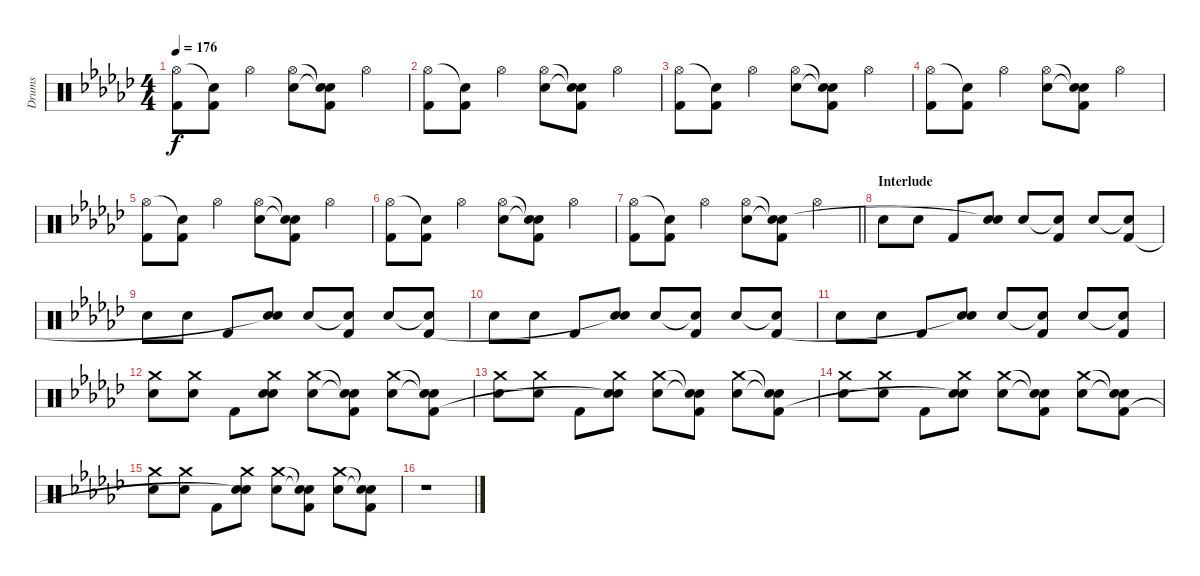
\track ("Drums" "Drums") {instrument percussion}
\staff {score}
\articulation defaults
\ts (4 4)
\tempo 176
\clef neutral
\ks ebminor
("Hi-Hat (open)" "Kick (hit) 2").8{dy f} ("Snare (hit)"{t} "Kick (hit) 2").8 "Hi-Hat (open)".4 ("Hi-Hat (open)" "Electric Snare (hit)").8 ("Snare (hit)"{t} "Snare (hit)"{t} "Kick (hit) 2").8 "Hi-Hat (open)".4 |
("Hi-Hat (open)" "Kick (hit) 2").8 ("Snare (hit)"{t} "Kick (hit) 2").8 "Hi-Hat (open)".4 ("Hi-Hat (open)" "Electric Snare (hit)").8 ("Snare (hit)"{t} "Snare (hit)"{t} "Kick (hit) 2").8 "Hi-Hat (open)".4 |
("Hi-Hat (open)" "Kick (hit) 2").8 ("Snare (hit)"{t} "Kick (hit) 2").8 "Hi-Hat (open)".4 ("Hi-Hat (open)" "Electric Snare (hit)").8 ("Snare (hit)"{t} "Snare (hit)"{t} "Kick (hit) 2").8 "Hi-Hat (open)".4 |
("Hi-Hat (open)" "Kick (hit) 2").8 ("Snare (hit)"{t} "Kick (hit) 2").8 "Hi-Hat (open)".4 ("Hi-Hat (open)" "Electric Snare (hit)").8 ("Snare (hit)"{t} "Snare (hit)"{t} "Kick (hit) 2").8 "Hi-Hat (open)".4 |
("Hi-Hat (open)" "Kick (hit) 2").8 ("Snare (hit)"{t} "Kick (hit) 2").8 "Hi-Hat (open)".4 ("Hi-Hat (open)" "Electric Snare (hit)").8 ("Snare (hit)"{t} "Snare (hit)"{t} "Kick (hit) 2").8 "Hi-Hat (open)".4 |
("Hi-Hat (open)" "Kick (hit) 2").8 ("Snare (hit)"{t} "Kick (hit) 2").8 "Hi-Hat (open)".4 ("Hi-Hat (open)" "Electric Snare (hit)").8 ("Snare (hit)"{t} "Snare (hit)"{t} "Kick (hit) 2").8 "Hi-Hat (open)".4 |
\barLineRight lightlight
("Hi-Hat (open)" "Kick (hit) 2").8 ("Snare (hit)"{t} "Kick (hit) 2").8 "Hi-Hat (open)".4 ("Hi-Hat (open)" "Electric Snare (hit)").8 ("Snare (hit)"{t} "Snare (hit)"{t} "Kick (hit) 2").8 "Hi-Hat (open)".4 |
\section ("" "Interlude")
"Electric Snare (hit)".8 "Electric Snare (hit)".8 "Kick (hit) 2".8 ("Electric Snare (hit)" "Snare (hit)"{t}).8 "Electric Snare (hit)".8 ("Snare (hit)"{t} "Kick (hit) 2").8 "Electric Snare (hit)".8 ("Snare (hit)"{t} "Kick (hit) 2").8 |
"Electric Snare (hit)".8 "Electric Snare (hit)".8 "Kick (hit) 2".8 ("Electric Snare (hit)" "Snare (hit)"{t}).8 "Electric Snare (hit)".8 ("Snare (hit)"{t} "Kick (hit) 2").8 "Electric Snare (hit)".8 ("Snare (hit)"{t} "Kick (hit) 2").8 |
"Electric Snare (hit)".8 "Electric Snare (hit)".8 "Kick (hit) 2".8 ("Electric Snare (hit)" "Snare (hit)"{t}).8 "Electric Snare (hit)".8 ("Snare (hit)"{t} "Kick (hit) 2").8 "Electric Snare (hit)".8 ("Snare (hit)"{t} "Kick (hit) 2").8 |
"Electric Snare (hit)".8 "Electric Snare (hit)".8 "Kick (hit) 2".8 ("Electric Snare (hit)" "Snare (hit)"{t}).8 "Electric Snare (hit)".8 ("Snare (hit)"{t} "Kick (hit) 2").8 "Electric Snare (hit)".8 ("Snare (hit)"{t} "Kick (hit) 2").8 |
("Crash medium (hit)" "Electric Snare (hit)").8 ("Crash medium (hit)" "Electric Snare (hit)").8 "Kick (hit) 2".8 ("Crash medium (hit)" "Electric Snare (hit)" "Snare (hit)").8 ("Crash medium (hit)" "Electric Snare (hit)").8 ("Snare (hit)"{t} "Snare (hit)"{t} "Kick (hit) 2").8 ("Crash medium (hit)" "Electric Snare (hit)").8 ("Snare (hit)"{t} "Snare (hit)"{t} "Kick (hit) 2").8 |
("Crash medium (hit)" "Electric Snare (hit)").8 ("Crash medium (hit)" "Electric Snare (hit)").8 "Kick (hit) 2".8 ("Crash medium (hit)" "Electric Snare (hit)" "Snare (hit)"{t}).8 ("Crash medium (hit)" "Electric Snare (hit)").8 ("Snare (hit)"{t} "Snare (hit)"{t} "Kick (hit) 2").8 ("Crash medium (hit)" "Electric Snare (hit)").8 ("Snare (hit)"{t} "Snare (hit)"{t} "Kick (hit) 2").8 |
("Crash medium (hit)" "Electric Snare (hit)").8 ("Crash medium (hit)" "Electric Snare (hit)").8 "Kick (hit) 2".8 ("Crash medium (hit)" "Electric Snare (hit)" "Snare (hit)"{t}).8 ("Crash medium (hit)" "Electric Snare (hit)").8 ("Snare (hit)"{t} "Snare (hit)"{t} "Kick (hit) 2").8 ("Crash medium (hit)" "Electric Snare (hit)").8 ("Snare (hit)"{t} "Snare (hit)"{t} "Kick (hit) 2").8 |
("Crash medium (hit)" "Electric Snare (hit)").8 ("Crash medium (hit)" "Electric Snare (hit)").8 "Kick (hit) 2".8 ("Crash medium (hit)" "Electric Snare (hit)" "Snare (hit)"{t}).8 ("Crash medium (hit)" "Electric Snare (hit)").8 ("Snare (hit)"{t} "Snare (hit)"{t} "Kick (hit) 2").8 ("Crash medium (hit)" "Electric Snare (hit)").8 ("Snare (hit)"{t} "Snare (hit)"{t} "Kick (hit) 2").8 |
r.1
